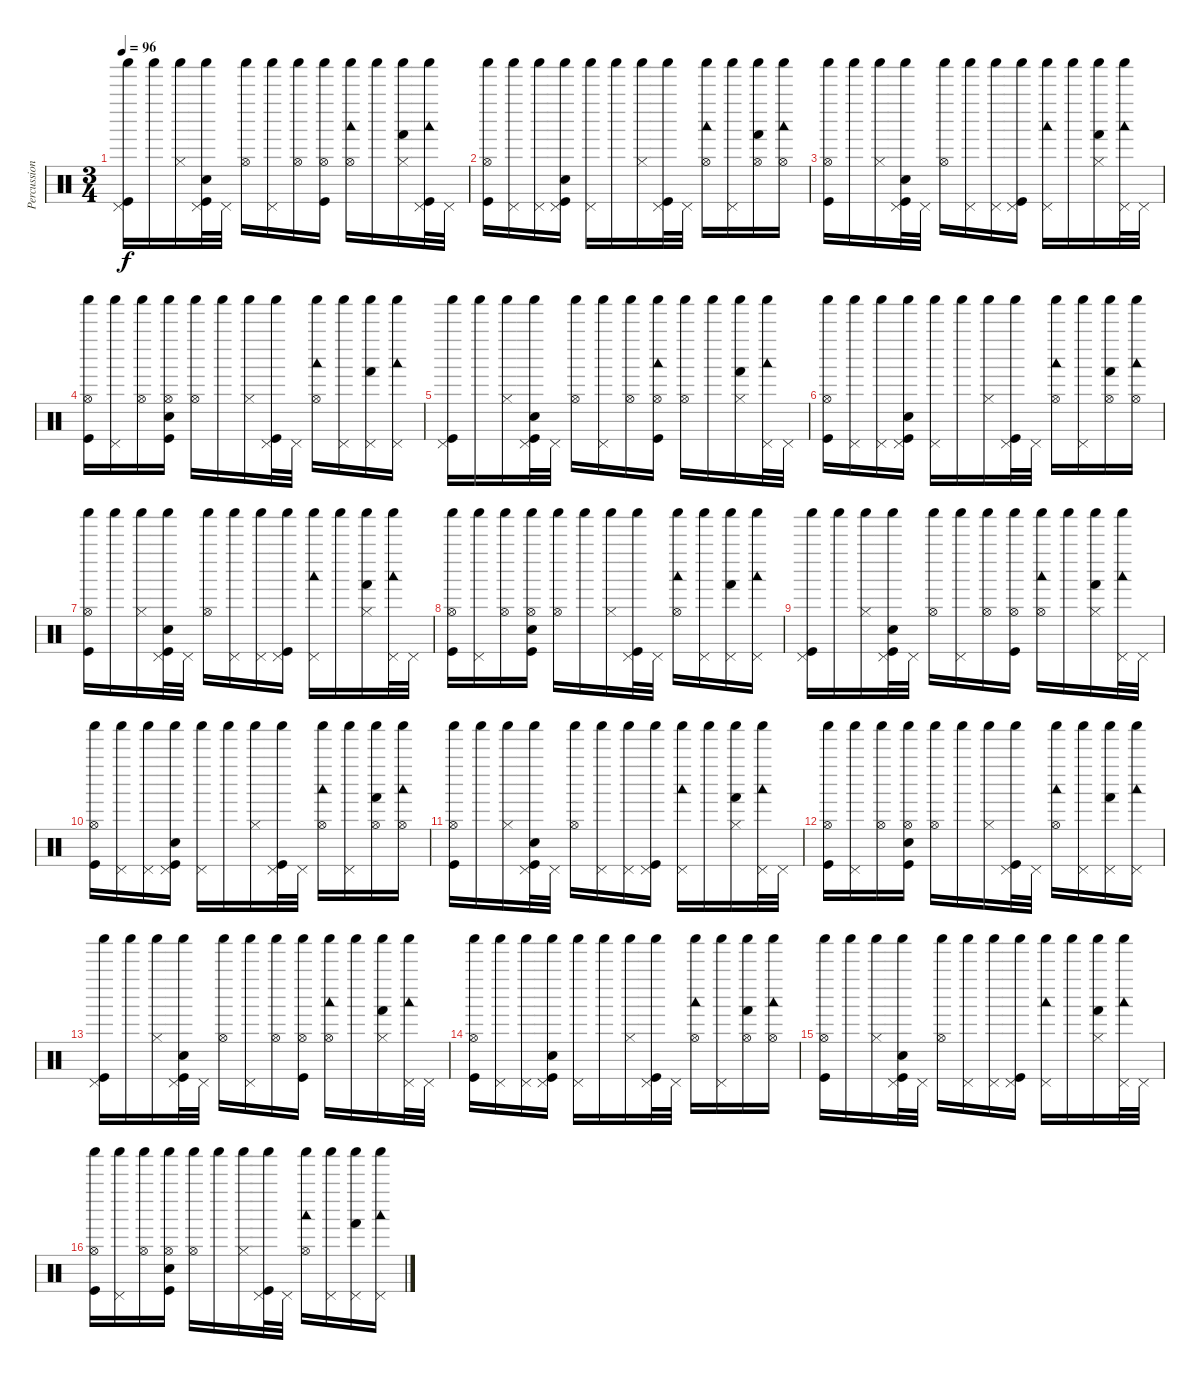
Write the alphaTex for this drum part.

\track ("Percussions" "Percussion") {instrument percussion}
\staff {score}
\articulation defaults
\ts (3 4)
\tempo 96
\clef neutral
\ks c
("Pedal Hi-Hat (hit)" "Shaker (hit)" "Kick (hit)").16{dy f} "Shaker (hit)".16 ("Hi-Hat (closed)" "Shaker (hit)").16 ("Pedal Hi-Hat (hit)" "Shaker (hit)" "Metronome (bell)" "Kick (hit)").32 "Pedal Hi-Hat (hit)".32 ("Hi-Hat (open)" "Shaker (hit)").16 ("Pedal Hi-Hat (hit)" "Shaker (hit)").16 ("Hi-Hat (open)" "Shaker (hit)").16 ("Hi-Hat (open)" "Shaker (hit)" "Kick (hit)").16 ("Hi-Hat (open)" "Shaker (hit)" "Woodblock low (hit)").16 "Shaker (hit)".16 ("Hi-Hat (closed)" "Shaker (hit)" "Hand (hit)").16 ("Pedal Hi-Hat (hit)" "Shaker (hit)" "Woodblock low (hit)" "Kick (hit)").32 "Pedal Hi-Hat (hit)".32 |
("Hi-Hat (open)" "Shaker (hit)" "Kick (hit)").16 ("Pedal Hi-Hat (hit)" "Shaker (hit)").16 ("Pedal Hi-Hat (hit)" "Shaker (hit)").16 ("Pedal Hi-Hat (hit)" "Shaker (hit)" "Metronome (bell)" "Kick (hit)").16 ("Pedal Hi-Hat (hit)" "Shaker (hit)").16 "Shaker (hit)".16 ("Hi-Hat (closed)" "Shaker (hit)").16 ("Pedal Hi-Hat (hit)" "Shaker (hit)" "Kick (hit)").32 "Pedal Hi-Hat (hit)".32 ("Hi-Hat (open)" "Shaker (hit)" "Woodblock low (hit)").16 ("Pedal Hi-Hat (hit)" "Shaker (hit)").16 ("Hi-Hat (open)" "Shaker (hit)" "Hand (hit)").16 ("Hi-Hat (open)" "Shaker (hit)" "Woodblock low (hit)").16 |
("Hi-Hat (open)" "Shaker (hit)" "Kick (hit)").16 "Shaker (hit)".16 ("Hi-Hat (closed)" "Shaker (hit)").16 ("Pedal Hi-Hat (hit)" "Shaker (hit)" "Metronome (bell)" "Kick (hit)").32 "Pedal Hi-Hat (hit)".32 ("Hi-Hat (open)" "Shaker (hit)").16 ("Pedal Hi-Hat (hit)" "Shaker (hit)").16 ("Pedal Hi-Hat (hit)" "Shaker (hit)").16 ("Pedal Hi-Hat (hit)" "Shaker (hit)" "Kick (hit)").16 ("Pedal Hi-Hat (hit)" "Shaker (hit)" "Woodblock low (hit)").16 "Shaker (hit)".16 ("Hi-Hat (closed)" "Shaker (hit)" "Hand (hit)").16 ("Pedal Hi-Hat (hit)" "Shaker (hit)" "Woodblock low (hit)").32 "Pedal Hi-Hat (hit)".32 |
("Hi-Hat (open)" "Shaker (hit)" "Kick (hit)").16 ("Pedal Hi-Hat (hit)" "Shaker (hit)").16 ("Hi-Hat (open)" "Shaker (hit)").16 ("Hi-Hat (open)" "Shaker (hit)" "Metronome (bell)" "Kick (hit)").16 ("Hi-Hat (open)" "Shaker (hit)").16 "Shaker (hit)".16 ("Hi-Hat (closed)" "Shaker (hit)").16 ("Pedal Hi-Hat (hit)" "Shaker (hit)" "Kick (hit)").32 "Pedal Hi-Hat (hit)".32 ("Hi-Hat (open)" "Shaker (hit)" "Woodblock low (hit)").16 ("Pedal Hi-Hat (hit)" "Shaker (hit)").16 ("Pedal Hi-Hat (hit)" "Shaker (hit)" "Hand (hit)").16 ("Pedal Hi-Hat (hit)" "Shaker (hit)" "Woodblock low (hit)").16 |
("Pedal Hi-Hat (hit)" "Shaker (hit)" "Kick (hit)").16 "Shaker (hit)".16 ("Hi-Hat (closed)" "Shaker (hit)").16 ("Pedal Hi-Hat (hit)" "Shaker (hit)" "Metronome (bell)" "Kick (hit)").32 "Pedal Hi-Hat (hit)".32 ("Hi-Hat (open)" "Shaker (hit)").16 ("Pedal Hi-Hat (hit)" "Shaker (hit)").16 ("Hi-Hat (open)" "Shaker (hit)").16 ("Hi-Hat (open)" "Shaker (hit)" "Woodblock low (hit)" "Kick (hit)").16 ("Hi-Hat (open)" "Shaker (hit)").16 "Shaker (hit)".16 ("Hi-Hat (closed)" "Shaker (hit)" "Hand (hit)").16 ("Pedal Hi-Hat (hit)" "Shaker (hit)" "Woodblock low (hit)").32 "Pedal Hi-Hat (hit)".32 |
("Hi-Hat (open)" "Shaker (hit)" "Kick (hit)").16 ("Pedal Hi-Hat (hit)" "Shaker (hit)").16 ("Pedal Hi-Hat (hit)" "Shaker (hit)").16 ("Pedal Hi-Hat (hit)" "Shaker (hit)" "Metronome (bell)" "Kick (hit)").16 ("Pedal Hi-Hat (hit)" "Shaker (hit)").16 "Shaker (hit)".16 ("Hi-Hat (closed)" "Shaker (hit)").16 ("Pedal Hi-Hat (hit)" "Shaker (hit)" "Kick (hit)").32 "Pedal Hi-Hat (hit)".32 ("Hi-Hat (open)" "Shaker (hit)" "Woodblock low (hit)").16 ("Pedal Hi-Hat (hit)" "Shaker (hit)").16 ("Hi-Hat (open)" "Shaker (hit)" "Hand (hit)").16 ("Hi-Hat (open)" "Shaker (hit)" "Woodblock low (hit)").16 |
("Hi-Hat (open)" "Shaker (hit)" "Kick (hit)").16 "Shaker (hit)".16 ("Hi-Hat (closed)" "Shaker (hit)").16 ("Pedal Hi-Hat (hit)" "Shaker (hit)" "Metronome (bell)" "Kick (hit)").32 "Pedal Hi-Hat (hit)".32 ("Hi-Hat (open)" "Shaker (hit)").16 ("Pedal Hi-Hat (hit)" "Shaker (hit)").16 ("Pedal Hi-Hat (hit)" "Shaker (hit)").16 ("Pedal Hi-Hat (hit)" "Shaker (hit)" "Kick (hit)").16 ("Pedal Hi-Hat (hit)" "Shaker (hit)" "Woodblock low (hit)").16 "Shaker (hit)".16 ("Hi-Hat (closed)" "Shaker (hit)" "Hand (hit)").16 ("Pedal Hi-Hat (hit)" "Shaker (hit)" "Woodblock low (hit)").32 "Pedal Hi-Hat (hit)".32 |
("Hi-Hat (open)" "Shaker (hit)" "Kick (hit)").16 ("Pedal Hi-Hat (hit)" "Shaker (hit)").16 ("Hi-Hat (open)" "Shaker (hit)").16 ("Hi-Hat (open)" "Shaker (hit)" "Metronome (bell)" "Kick (hit)").16 ("Hi-Hat (open)" "Shaker (hit)").16 "Shaker (hit)".16 ("Hi-Hat (closed)" "Shaker (hit)").16 ("Pedal Hi-Hat (hit)" "Shaker (hit)" "Kick (hit)").32 "Pedal Hi-Hat (hit)".32 ("Hi-Hat (open)" "Shaker (hit)" "Woodblock low (hit)").16 ("Pedal Hi-Hat (hit)" "Shaker (hit)").16 ("Pedal Hi-Hat (hit)" "Shaker (hit)" "Hand (hit)").16 ("Pedal Hi-Hat (hit)" "Shaker (hit)" "Woodblock low (hit)").16 |
("Pedal Hi-Hat (hit)" "Shaker (hit)" "Kick (hit)").16 "Shaker (hit)".16 ("Hi-Hat (closed)" "Shaker (hit)").16 ("Pedal Hi-Hat (hit)" "Shaker (hit)" "Metronome (bell)" "Kick (hit)").32 "Pedal Hi-Hat (hit)".32 ("Hi-Hat (open)" "Shaker (hit)").16 ("Pedal Hi-Hat (hit)" "Shaker (hit)").16 ("Hi-Hat (open)" "Shaker (hit)").16 ("Hi-Hat (open)" "Shaker (hit)" "Kick (hit)").16 ("Hi-Hat (open)" "Shaker (hit)" "Woodblock low (hit)").16 "Shaker (hit)".16 ("Hi-Hat (closed)" "Shaker (hit)" "Hand (hit)").16 ("Pedal Hi-Hat (hit)" "Shaker (hit)" "Woodblock low (hit)").32 "Pedal Hi-Hat (hit)".32 |
("Hi-Hat (open)" "Shaker (hit)" "Kick (hit)").16 ("Pedal Hi-Hat (hit)" "Shaker (hit)").16 ("Pedal Hi-Hat (hit)" "Shaker (hit)").16 ("Pedal Hi-Hat (hit)" "Shaker (hit)" "Metronome (bell)" "Kick (hit)").16 ("Pedal Hi-Hat (hit)" "Shaker (hit)").16 "Shaker (hit)".16 ("Hi-Hat (closed)" "Shaker (hit)").16 ("Pedal Hi-Hat (hit)" "Shaker (hit)" "Kick (hit)").32 "Pedal Hi-Hat (hit)".32 ("Hi-Hat (open)" "Shaker (hit)" "Woodblock low (hit)").16 ("Pedal Hi-Hat (hit)" "Shaker (hit)").16 ("Hi-Hat (open)" "Shaker (hit)" "Hand (hit)").16 ("Hi-Hat (open)" "Shaker (hit)" "Woodblock low (hit)").16 |
("Hi-Hat (open)" "Shaker (hit)" "Kick (hit)").16 "Shaker (hit)".16 ("Hi-Hat (closed)" "Shaker (hit)").16 ("Pedal Hi-Hat (hit)" "Shaker (hit)" "Metronome (bell)" "Kick (hit)").32 "Pedal Hi-Hat (hit)".32 ("Hi-Hat (open)" "Shaker (hit)").16 ("Pedal Hi-Hat (hit)" "Shaker (hit)").16 ("Pedal Hi-Hat (hit)" "Shaker (hit)").16 ("Pedal Hi-Hat (hit)" "Shaker (hit)" "Kick (hit)").16 ("Pedal Hi-Hat (hit)" "Shaker (hit)" "Woodblock low (hit)").16 "Shaker (hit)".16 ("Hi-Hat (closed)" "Shaker (hit)" "Hand (hit)").16 ("Pedal Hi-Hat (hit)" "Shaker (hit)" "Woodblock low (hit)").32 "Pedal Hi-Hat (hit)".32 |
("Hi-Hat (open)" "Shaker (hit)" "Kick (hit)").16 ("Pedal Hi-Hat (hit)" "Shaker (hit)").16 ("Hi-Hat (open)" "Shaker (hit)").16 ("Hi-Hat (open)" "Shaker (hit)" "Metronome (bell)" "Kick (hit)").16 ("Hi-Hat (open)" "Shaker (hit)").16 "Shaker (hit)".16 ("Hi-Hat (closed)" "Shaker (hit)").16 ("Pedal Hi-Hat (hit)" "Shaker (hit)" "Kick (hit)").32 "Pedal Hi-Hat (hit)".32 ("Hi-Hat (open)" "Shaker (hit)" "Woodblock low (hit)").16 ("Pedal Hi-Hat (hit)" "Shaker (hit)").16 ("Pedal Hi-Hat (hit)" "Shaker (hit)" "Hand (hit)").16 ("Pedal Hi-Hat (hit)" "Shaker (hit)" "Woodblock low (hit)").16 |
("Pedal Hi-Hat (hit)" "Shaker (hit)" "Kick (hit)").16 "Shaker (hit)".16 ("Hi-Hat (closed)" "Shaker (hit)").16 ("Pedal Hi-Hat (hit)" "Shaker (hit)" "Metronome (bell)" "Kick (hit)").32 "Pedal Hi-Hat (hit)".32 ("Hi-Hat (open)" "Shaker (hit)").16 ("Pedal Hi-Hat (hit)" "Shaker (hit)").16 ("Hi-Hat (open)" "Shaker (hit)").16 ("Hi-Hat (open)" "Shaker (hit)" "Kick (hit)").16 ("Hi-Hat (open)" "Shaker (hit)" "Woodblock low (hit)").16 "Shaker (hit)".16 ("Hi-Hat (closed)" "Shaker (hit)" "Hand (hit)").16 ("Pedal Hi-Hat (hit)" "Shaker (hit)" "Woodblock low (hit)").32 "Pedal Hi-Hat (hit)".32 |
("Hi-Hat (open)" "Shaker (hit)" "Kick (hit)").16 ("Pedal Hi-Hat (hit)" "Shaker (hit)").16 ("Pedal Hi-Hat (hit)" "Shaker (hit)").16 ("Pedal Hi-Hat (hit)" "Shaker (hit)" "Metronome (bell)" "Kick (hit)").16 ("Pedal Hi-Hat (hit)" "Shaker (hit)").16 "Shaker (hit)".16 ("Hi-Hat (closed)" "Shaker (hit)").16 ("Pedal Hi-Hat (hit)" "Shaker (hit)" "Kick (hit)").32 "Pedal Hi-Hat (hit)".32 ("Hi-Hat (open)" "Shaker (hit)" "Woodblock low (hit)").16 ("Pedal Hi-Hat (hit)" "Shaker (hit)").16 ("Hi-Hat (open)" "Shaker (hit)" "Hand (hit)").16 ("Hi-Hat (open)" "Shaker (hit)" "Woodblock low (hit)").16 |
("Hi-Hat (open)" "Shaker (hit)" "Kick (hit)").16 "Shaker (hit)".16 ("Hi-Hat (closed)" "Shaker (hit)").16 ("Pedal Hi-Hat (hit)" "Shaker (hit)" "Metronome (bell)" "Kick (hit)").32 "Pedal Hi-Hat (hit)".32 ("Hi-Hat (open)" "Shaker (hit)").16 ("Pedal Hi-Hat (hit)" "Shaker (hit)").16 ("Pedal Hi-Hat (hit)" "Shaker (hit)").16 ("Pedal Hi-Hat (hit)" "Shaker (hit)" "Kick (hit)").16 ("Pedal Hi-Hat (hit)" "Shaker (hit)" "Woodblock low (hit)").16 "Shaker (hit)".16 ("Hi-Hat (closed)" "Shaker (hit)" "Hand (hit)").16 ("Pedal Hi-Hat (hit)" "Shaker (hit)" "Woodblock low (hit)").32 "Pedal Hi-Hat (hit)".32 |
("Hi-Hat (open)" "Shaker (hit)" "Kick (hit)").16 ("Pedal Hi-Hat (hit)" "Shaker (hit)").16 ("Hi-Hat (open)" "Shaker (hit)").16 ("Hi-Hat (open)" "Shaker (hit)" "Metronome (bell)" "Kick (hit)").16 ("Hi-Hat (open)" "Shaker (hit)").16 "Shaker (hit)".16 ("Hi-Hat (closed)" "Shaker (hit)").16 ("Pedal Hi-Hat (hit)" "Shaker (hit)" "Kick (hit)").32 "Pedal Hi-Hat (hit)".32 ("Hi-Hat (open)" "Shaker (hit)" "Woodblock low (hit)").16 ("Pedal Hi-Hat (hit)" "Shaker (hit)").16 ("Pedal Hi-Hat (hit)" "Shaker (hit)" "Hand (hit)").16 ("Pedal Hi-Hat (hit)" "Shaker (hit)" "Woodblock low (hit)").16
